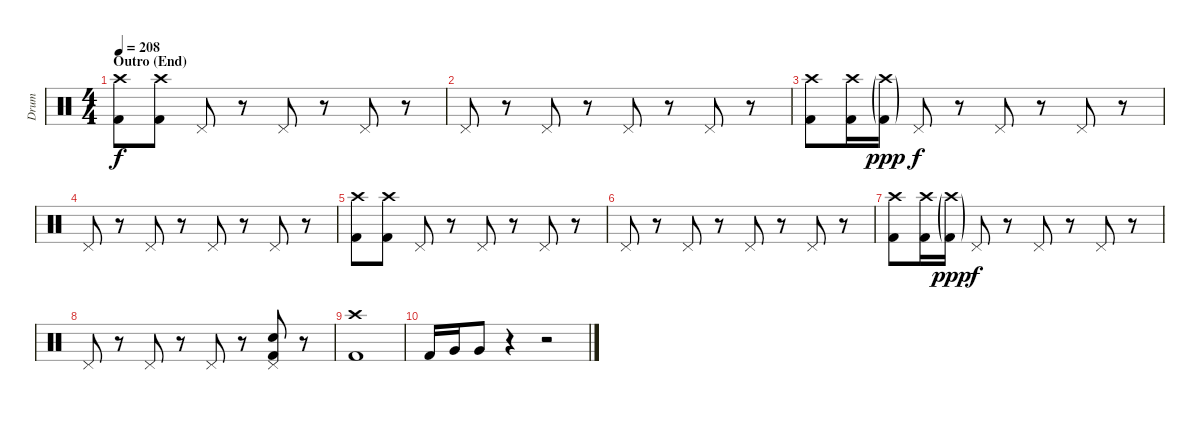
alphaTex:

\track ("Drum" "Drum") {instrument percussion}
\staff {score}
\articulation defaults
\ts (4 4)
\section ("" "Outro (End)")
\tempo 208
\clef neutral
\ks c
("Crash high (hit)" "Kick (hit) 2").8{dy f} ("Crash high (hit)" "Kick (hit) 2").8 "Pedal Hi-Hat (hit)".8 r.8 "Pedal Hi-Hat (hit)".8 r.8 "Pedal Hi-Hat (hit)".8 r.8 |
"Pedal Hi-Hat (hit)".8 r.8 "Pedal Hi-Hat (hit)".8 r.8 "Pedal Hi-Hat (hit)".8 r.8 "Pedal Hi-Hat (hit)".8 r.8 |
("Crash high (hit)" "Kick (hit) 2").8 ("Crash high (hit)" "Kick (hit) 2").16 ("Crash high (hit)"{g} "Kick (hit) 2"{g}).16{dy ppp} "Pedal Hi-Hat (hit)".8{dy f} r.8 "Pedal Hi-Hat (hit)".8 r.8 "Pedal Hi-Hat (hit)".8 r.8 |
"Pedal Hi-Hat (hit)".8 r.8 "Pedal Hi-Hat (hit)".8 r.8 "Pedal Hi-Hat (hit)".8 r.8 "Pedal Hi-Hat (hit)".8 r.8 |
("Crash high (hit)" "Kick (hit) 2").8 ("Crash high (hit)" "Kick (hit) 2").8 "Pedal Hi-Hat (hit)".8 r.8 "Pedal Hi-Hat (hit)".8 r.8 "Pedal Hi-Hat (hit)".8 r.8 |
"Pedal Hi-Hat (hit)".8 r.8 "Pedal Hi-Hat (hit)".8 r.8 "Pedal Hi-Hat (hit)".8 r.8 "Pedal Hi-Hat (hit)".8 r.8 |
("Crash high (hit)" "Kick (hit) 2").8 ("Crash high (hit)" "Kick (hit) 2").16 ("Crash high (hit)"{g} "Kick (hit) 2"{g}).16{dy ppp} "Pedal Hi-Hat (hit)".8{dy f} r.8 "Pedal Hi-Hat (hit)".8 r.8 "Pedal Hi-Hat (hit)".8 r.8 |
"Pedal Hi-Hat (hit)".8 r.8 "Pedal Hi-Hat (hit)".8 r.8 "Pedal Hi-Hat (hit)".8 r.8 ("Pedal Hi-Hat (hit)" "Electric Snare (hit)" "Kick (hit) 2").8 r.8 |
("Crash high (hit)" "Kick (hit) 2").1 |
"Kick (hit) 2".16 "Very Low Tom (hit)".16 "Very Low Tom (hit)".8 r.4 r.2
